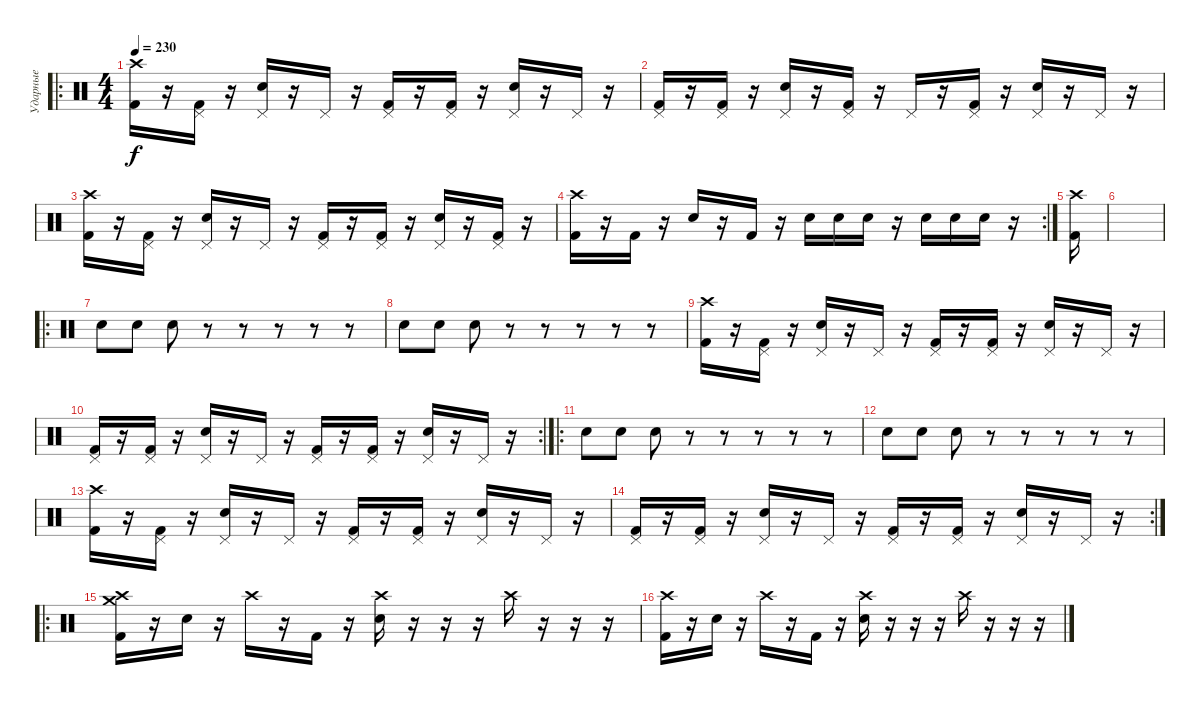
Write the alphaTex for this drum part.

\track ("Ударные" "Ударные") {instrument percussion}
\staff
\articulation defaults
\ro
\ts (4 4)
\tempo 230
\clef neutral
\ks c
("Crash high (hit)" "Kick (hit) 2").16{dy f} r.16 ("Pedal Hi-Hat (hit)" "Kick (hit) 2").16 r.16 ("Pedal Hi-Hat (hit)" "Electric Snare (hit)").16 r.16 "Pedal Hi-Hat (hit)".16 r.16 ("Pedal Hi-Hat (hit)" "Kick (hit) 2").16 r.16 ("Pedal Hi-Hat (hit)" "Kick (hit) 2").16 r.16 ("Pedal Hi-Hat (hit)" "Electric Snare (hit)").16 r.16 "Pedal Hi-Hat (hit)".16 r.16 |
("Pedal Hi-Hat (hit)" "Kick (hit) 2").16 r.16 ("Pedal Hi-Hat (hit)" "Kick (hit) 2").16 r.16 ("Pedal Hi-Hat (hit)" "Electric Snare (hit)").16 r.16 ("Pedal Hi-Hat (hit)" "Kick (hit) 2").16 r.16 "Pedal Hi-Hat (hit)".16 r.16 ("Pedal Hi-Hat (hit)" "Kick (hit) 2").16 r.16 ("Pedal Hi-Hat (hit)" "Electric Snare (hit)").16 r.16 "Pedal Hi-Hat (hit)".16 r.16 |
("Crash high (hit)" "Kick (hit) 2").16 r.16 ("Pedal Hi-Hat (hit)" "Kick (hit) 2").16 r.16 ("Pedal Hi-Hat (hit)" "Electric Snare (hit)").16 r.16 "Pedal Hi-Hat (hit)".16 r.16 ("Pedal Hi-Hat (hit)" "Kick (hit) 2").16 r.16 ("Pedal Hi-Hat (hit)" "Kick (hit) 2").16 r.16 ("Pedal Hi-Hat (hit)" "Electric Snare (hit)").16 r.16 ("Pedal Hi-Hat (hit)" "Kick (hit) 2").16 r.16 |
\rc 2
("Crash high (hit)" "Kick (hit) 2").16 r.16 "Kick (hit) 2".16 r.16 "Electric Snare (hit)".16 r.16 "Kick (hit) 2".16 r.16 "Electric Snare (hit)".16 "Electric Snare (hit)".16 "Electric Snare (hit)".16 r.16 "Electric Snare (hit)".16 "Electric Snare (hit)".16 "Electric Snare (hit)".16 r.16 |
("Crash high (hit)" "Kick (hit) 2").16 |
|
\ro "Electric Snare (hit)".8 "Electric Snare (hit)".8 "Electric Snare (hit)".8
r.8 r.8 r.8 r.8 r.8 |
"Electric Snare (hit)".8 "Electric Snare (hit)".8 "Electric Snare (hit)".8 r.8 r.8 r.8 r.8 r.8 |
("Crash high (hit)" "Kick (hit) 2").16 r.16 ("Pedal Hi-Hat (hit)" "Kick (hit) 2").16 r.16 ("Pedal Hi-Hat (hit)" "Electric Snare (hit)").16 r.16 "Pedal Hi-Hat (hit)".16 r.16 ("Pedal Hi-Hat (hit)" "Kick (hit) 2").16 r.16 ("Pedal Hi-Hat (hit)" "Kick (hit) 2").16 r.16 ("Pedal Hi-Hat (hit)" "Electric Snare (hit)").16 r.16 "Pedal Hi-Hat (hit)".16 r.16 |
\rc 2
("Pedal Hi-Hat (hit)" "Kick (hit) 2").16 r.16 ("Pedal Hi-Hat (hit)" "Kick (hit) 2").16 r.16 ("Pedal Hi-Hat (hit)" "Electric Snare (hit)").16 r.16 "Pedal Hi-Hat (hit)".16 r.16 ("Pedal Hi-Hat (hit)" "Kick (hit) 2").16 r.16 ("Pedal Hi-Hat (hit)" "Kick (hit) 2").16 r.16 ("Pedal Hi-Hat (hit)" "Electric Snare (hit)").16 r.16 "Pedal Hi-Hat (hit)".16 r.16 |
\ro "Electric Snare (hit)".8 "Electric Snare (hit)".8 "Electric Snare (hit)".8
r.8 r.8 r.8 r.8 r.8 |
"Electric Snare (hit)".8 "Electric Snare (hit)".8 "Electric Snare (hit)".8 r.8 r.8 r.8 r.8 r.8 |
("Crash high (hit)" "Kick (hit) 2").16 r.16 ("Pedal Hi-Hat (hit)" "Kick (hit) 2").16 r.16 ("Pedal Hi-Hat (hit)" "Electric Snare (hit)").16 r.16 "Pedal Hi-Hat (hit)".16 r.16 ("Pedal Hi-Hat (hit)" "Kick (hit) 2").16 r.16 ("Pedal Hi-Hat (hit)" "Kick (hit) 2").16 r.16 ("Pedal Hi-Hat (hit)" "Electric Snare (hit)").16 r.16 "Pedal Hi-Hat (hit)".16 r.16 |
\rc 2
("Pedal Hi-Hat (hit)" "Kick (hit) 2").16 r.16 ("Pedal Hi-Hat (hit)" "Kick (hit) 2").16 r.16 ("Pedal Hi-Hat (hit)" "Electric Snare (hit)").16 r.16 "Pedal Hi-Hat (hit)".16 r.16 ("Pedal Hi-Hat (hit)" "Kick (hit) 2").16 r.16 ("Pedal Hi-Hat (hit)" "Kick (hit) 2").16 r.16 ("Pedal Hi-Hat (hit)" "Electric Snare (hit)").16 r.16 "Pedal Hi-Hat (hit)".16 r.16 |
\ro
("Crash medium (hit)" "Kick (hit) 2" "Crash high (hit)").16 r.16 "Electric Snare (hit)".16 r.16 "Crash high (hit)".16 r.16 "Kick (hit) 2".16 r.16 ("Crash high (hit)" "Electric Snare (hit)").16 r.16 r.16 r.16 "Crash high (hit)".16 r.16 r.16 r.16 |
("Crash high (hit)" "Kick (hit) 2").16 r.16 "Electric Snare (hit)".16 r.16 "Crash high (hit)".16 r.16 "Kick (hit) 2".16 r.16 ("Crash high (hit)" "Electric Snare (hit)").16 r.16 r.16 r.16 "Crash high (hit)".16 r.16 r.16 r.16
